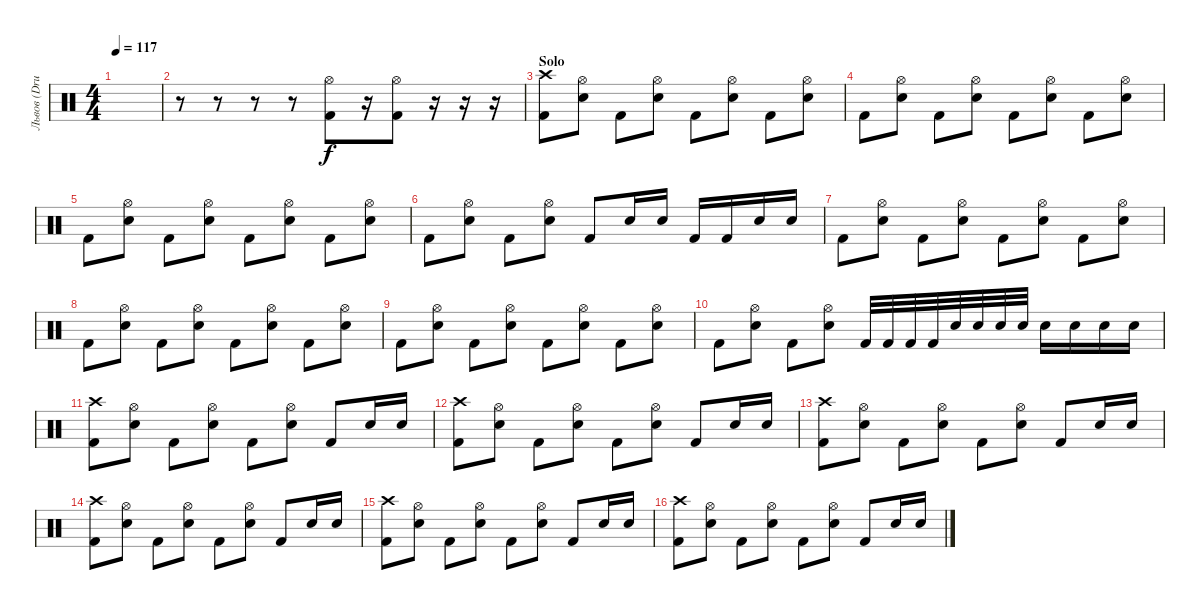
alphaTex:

\track ("Львов (Drums)" "Львов (Dru") {instrument percussion}
\staff {score}
\articulation defaults
\ts (4 4)
\tempo 117
\clef neutral
\ks c
|
r.8 r.8 r.8 r.8 ("Kick (hit) 2" "Hi-Hat (open)").8 r.16 ("Hi-Hat (open)" "Kick (hit) 2").8 r.16 r.16 r.16 |
\section ("" "Solo")
("Kick (hit) 2" "Crash high (hit)").8 ("Electric Snare (hit)" "Hi-Hat (open)").8 "Kick (hit) 2".8 ("Electric Snare (hit)" "Hi-Hat (open)").8 "Kick (hit) 2".8 ("Electric Snare (hit)" "Hi-Hat (open)").8 "Kick (hit) 2".8 ("Electric Snare (hit)" "Hi-Hat (open)").8 |
"Kick (hit) 2".8 ("Electric Snare (hit)" "Hi-Hat (open)").8 "Kick (hit) 2".8 ("Electric Snare (hit)" "Hi-Hat (open)").8 "Kick (hit) 2".8 ("Electric Snare (hit)" "Hi-Hat (open)").8 "Kick (hit) 2".8 ("Electric Snare (hit)" "Hi-Hat (open)").8 |
"Kick (hit) 2".8 ("Electric Snare (hit)" "Hi-Hat (open)").8 "Kick (hit) 2".8 ("Electric Snare (hit)" "Hi-Hat (open)").8 "Kick (hit) 2".8 ("Electric Snare (hit)" "Hi-Hat (open)").8 "Kick (hit) 2".8 ("Electric Snare (hit)" "Hi-Hat (open)").8 |
"Kick (hit) 2".8 ("Electric Snare (hit)" "Hi-Hat (open)").8 "Kick (hit) 2".8 ("Electric Snare (hit)" "Hi-Hat (open)").8 "Kick (hit) 2".8 "Electric Snare (hit)".16 "Electric Snare (hit)".16 "Kick (hit) 2".16 "Kick (hit) 2".16 "Electric Snare (hit)".16 "Electric Snare (hit)".16 |
"Kick (hit) 2".8 ("Electric Snare (hit)" "Hi-Hat (open)").8 "Kick (hit) 2".8 ("Electric Snare (hit)" "Hi-Hat (open)").8 "Kick (hit) 2".8 ("Electric Snare (hit)" "Hi-Hat (open)").8 "Kick (hit) 2".8 ("Electric Snare (hit)" "Hi-Hat (open)").8 |
"Kick (hit) 2".8 ("Electric Snare (hit)" "Hi-Hat (open)").8 "Kick (hit) 2".8 ("Electric Snare (hit)" "Hi-Hat (open)").8 "Kick (hit) 2".8 ("Electric Snare (hit)" "Hi-Hat (open)").8 "Kick (hit) 2".8 ("Electric Snare (hit)" "Hi-Hat (open)").8 |
"Kick (hit) 2".8 ("Electric Snare (hit)" "Hi-Hat (open)").8 "Kick (hit) 2".8 ("Electric Snare (hit)" "Hi-Hat (open)").8 "Kick (hit) 2".8 ("Electric Snare (hit)" "Hi-Hat (open)").8 "Kick (hit) 2".8 ("Electric Snare (hit)" "Hi-Hat (open)").8 |
"Kick (hit) 2".8 ("Electric Snare (hit)" "Hi-Hat (open)").8 "Kick (hit) 2".8 ("Electric Snare (hit)" "Hi-Hat (open)").8 "Kick (hit) 2".32 "Kick (hit) 2".32 "Kick (hit) 2".32 "Kick (hit) 2".32 "Electric Snare (hit)".32 "Electric Snare (hit)".32 "Electric Snare (hit)".32 "Electric Snare (hit)".32 "Electric Snare (hit)".16 "Electric Snare (hit)".16 "Electric Snare (hit)".16 "Electric Snare (hit)".16 |
("Kick (hit) 2" "Crash high (hit)").8 ("Electric Snare (hit)" "Hi-Hat (open)").8 "Kick (hit) 2".8 ("Electric Snare (hit)" "Hi-Hat (open)").8 "Kick (hit) 2".8 ("Electric Snare (hit)" "Hi-Hat (open)").8 "Kick (hit) 2".8 "Electric Snare (hit)".16 "Electric Snare (hit)".16 |
("Kick (hit) 2" "Crash high (hit)").8 ("Electric Snare (hit)" "Hi-Hat (open)").8 "Kick (hit) 2".8 ("Electric Snare (hit)" "Hi-Hat (open)").8 "Kick (hit) 2".8 ("Electric Snare (hit)" "Hi-Hat (open)").8 "Kick (hit) 2".8 "Electric Snare (hit)".16 "Electric Snare (hit)".16 |
("Kick (hit) 2" "Crash high (hit)").8 ("Electric Snare (hit)" "Hi-Hat (open)").8 "Kick (hit) 2".8 ("Electric Snare (hit)" "Hi-Hat (open)").8 "Kick (hit) 2".8 ("Electric Snare (hit)" "Hi-Hat (open)").8 "Kick (hit) 2".8 "Electric Snare (hit)".16 "Electric Snare (hit)".16 |
("Kick (hit) 2" "Crash high (hit)").8 ("Electric Snare (hit)" "Hi-Hat (open)").8 "Kick (hit) 2".8 ("Electric Snare (hit)" "Hi-Hat (open)").8 "Kick (hit) 2".8 ("Electric Snare (hit)" "Hi-Hat (open)").8 "Kick (hit) 2".8 "Electric Snare (hit)".16 "Electric Snare (hit)".16 |
("Kick (hit) 2" "Crash high (hit)").8 ("Electric Snare (hit)" "Hi-Hat (open)").8 "Kick (hit) 2".8 ("Electric Snare (hit)" "Hi-Hat (open)").8 "Kick (hit) 2".8 ("Electric Snare (hit)" "Hi-Hat (open)").8 "Kick (hit) 2".8 "Electric Snare (hit)".16 "Electric Snare (hit)".16 |
("Kick (hit) 2" "Crash high (hit)").8 ("Electric Snare (hit)" "Hi-Hat (open)").8 "Kick (hit) 2".8 ("Electric Snare (hit)" "Hi-Hat (open)").8 "Kick (hit) 2".8 ("Electric Snare (hit)" "Hi-Hat (open)").8 "Kick (hit) 2".8 "Electric Snare (hit)".16 "Electric Snare (hit)".16
